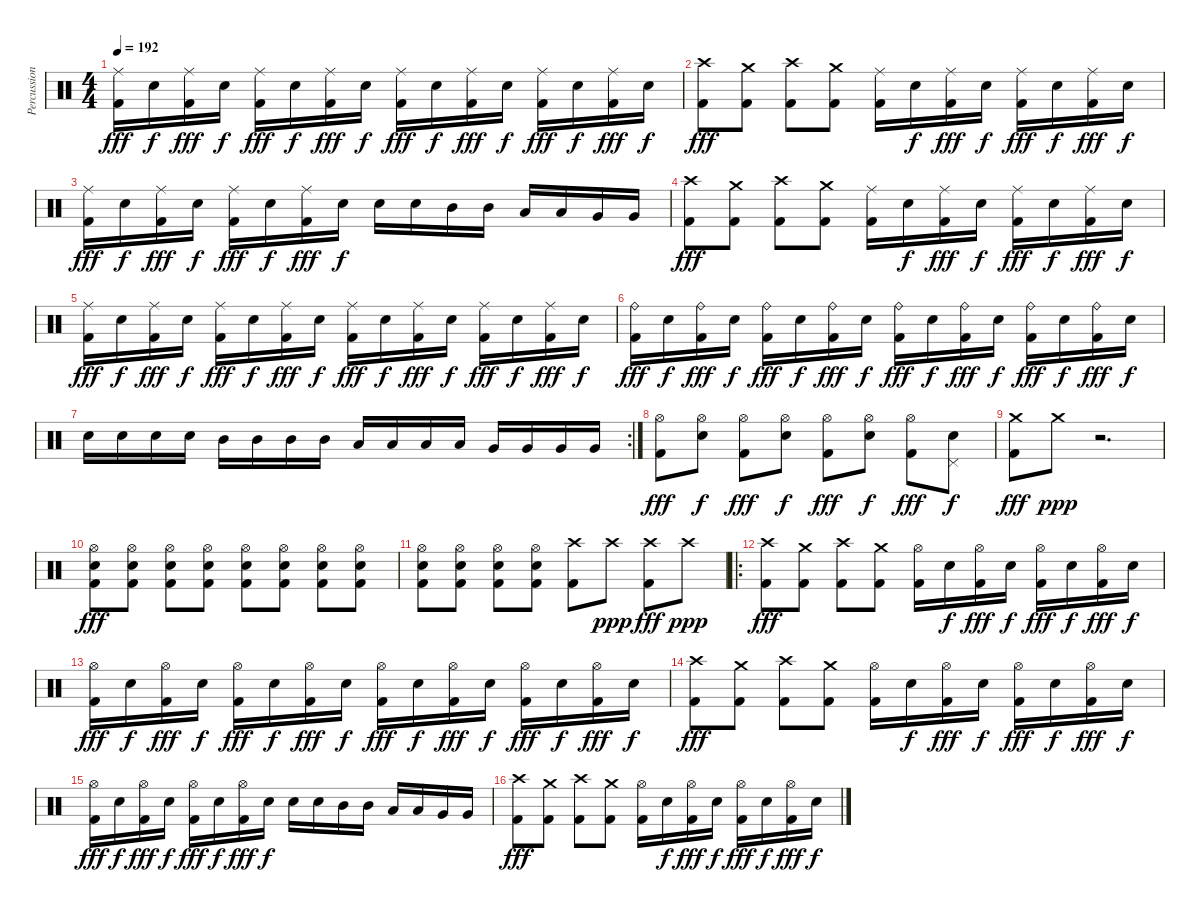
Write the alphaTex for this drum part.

\track ("Percussion" "Percussion") {instrument percussion}
\staff {score}
\articulation defaults
\ts (4 4)
\tempo 192
\clef neutral
\ks c
("Ride (middle)" "Kick (hit) 2").16{dy fff} "Electric Snare (hit)".16{dy f} ("Ride (middle)" "Kick (hit) 2").16{dy fff} "Electric Snare (hit)".16{dy f} ("Ride (middle)" "Kick (hit) 2").16{dy fff} "Electric Snare (hit)".16{dy f} ("Ride (middle)" "Kick (hit) 2").16{dy fff} "Electric Snare (hit)".16{dy f} ("Ride (middle)" "Kick (hit) 2").16{dy fff} "Electric Snare (hit)".16{dy f} ("Ride (middle)" "Kick (hit) 2").16{dy fff} "Electric Snare (hit)".16{dy f} ("Ride (middle)" "Kick (hit) 2").16{dy fff} "Electric Snare (hit)".16{dy f} ("Ride (middle)" "Kick (hit) 2").16{dy fff} "Electric Snare (hit)".16{dy f} |
("Crash high (hit)" "Kick (hit) 2").8{dy fff} ("Crash medium (hit)" "Kick (hit) 2").8 ("Crash high (hit)" "Kick (hit) 2").8 ("Crash medium (hit)" "Kick (hit) 2").8 ("Ride (middle)" "Kick (hit) 2").16 "Electric Snare (hit)".16{dy f} ("Ride (middle)" "Kick (hit) 2").16{dy fff} "Electric Snare (hit)".16{dy f} ("Ride (middle)" "Kick (hit) 2").16{dy fff} "Electric Snare (hit)".16{dy f} ("Ride (middle)" "Kick (hit) 2").16{dy fff} "Electric Snare (hit)".16{dy f} |
("Ride (middle)" "Kick (hit) 2").16{dy fff} "Electric Snare (hit)".16{dy f} ("Ride (middle)" "Kick (hit) 2").16{dy fff} "Electric Snare (hit)".16{dy f} ("Ride (middle)" "Kick (hit) 2").16{dy fff} "Electric Snare (hit)".16{dy f} ("Ride (middle)" "Kick (hit) 2").16{dy fff} "Electric Snare (hit)".16{dy f} "Electric Snare (hit)".16 "Electric Snare (hit)".16 "Mid Tom (hit)".16 "Mid Tom (hit)".16 "Low Tom (hit)".16 "Low Tom (hit)".16 "Very Low Tom (hit)".16 "Very Low Tom (hit)".16 |
("Crash high (hit)" "Kick (hit) 2").8{dy fff} ("Crash medium (hit)" "Kick (hit) 2").8 ("Crash high (hit)" "Kick (hit) 2").8 ("Crash medium (hit)" "Kick (hit) 2").8 ("Ride (middle)" "Kick (hit) 2").16 "Electric Snare (hit)".16{dy f} ("Ride (middle)" "Kick (hit) 2").16{dy fff} "Electric Snare (hit)".16{dy f} ("Ride (middle)" "Kick (hit) 2").16{dy fff} "Electric Snare (hit)".16{dy f} ("Ride (middle)" "Kick (hit) 2").16{dy fff} "Electric Snare (hit)".16{dy f} |
("Ride (middle)" "Kick (hit) 2").16{dy fff} "Electric Snare (hit)".16{dy f} ("Ride (middle)" "Kick (hit) 2").16{dy fff} "Electric Snare (hit)".16{dy f} ("Ride (middle)" "Kick (hit) 2").16{dy fff} "Electric Snare (hit)".16{dy f} ("Ride (middle)" "Kick (hit) 2").16{dy fff} "Electric Snare (hit)".16{dy f} ("Ride (middle)" "Kick (hit) 2").16{dy fff} "Electric Snare (hit)".16{dy f} ("Ride (middle)" "Kick (hit) 2").16{dy fff} "Electric Snare (hit)".16{dy f} ("Ride (middle)" "Kick (hit) 2").16{dy fff} "Electric Snare (hit)".16{dy f} ("Ride (middle)" "Kick (hit) 2").16{dy fff} "Electric Snare (hit)".16{dy f} |
("Ride (bell)" "Kick (hit) 2").16{dy fff} "Electric Snare (hit)".16{dy f} ("Ride (bell)" "Kick (hit) 2").16{dy fff} "Electric Snare (hit)".16{dy f} ("Ride (bell)" "Kick (hit) 2").16{dy fff} "Electric Snare (hit)".16{dy f} ("Ride (bell)" "Kick (hit) 2").16{dy fff} "Electric Snare (hit)".16{dy f} ("Ride (bell)" "Kick (hit) 2").16{dy fff} "Electric Snare (hit)".16{dy f} ("Ride (bell)" "Kick (hit) 2").16{dy fff} "Electric Snare (hit)".16{dy f} ("Ride (bell)" "Kick (hit) 2").16{dy fff} "Electric Snare (hit)".16{dy f} ("Ride (bell)" "Kick (hit) 2").16{dy fff} "Electric Snare (hit)".16{dy f} |
\rc 2 "Electric Snare (hit)".16 "Electric Snare (hit)".16 "Electric Snare (hit)".16 "Electric Snare (hit)".16 "Mid Tom (hit)".16 "Mid Tom (hit)".16 "Mid Tom (hit)".16 "Mid Tom (hit)".16 "Low Tom (hit)".16 "Low Tom (hit)".16 "Low Tom (hit)".16 "Low Tom (hit)".16 "Very Low Tom (hit)".16 "Very Low Tom (hit)".16 "Very Low Tom (hit)".16 "Very Low Tom (hit)".16
|
("Hi-Hat (open)" "Kick (hit) 2").8{dy fff} ("Hi-Hat (open)" "Electric Snare (hit)").8{dy f} ("Hi-Hat (open)" "Kick (hit) 2").8{dy fff} ("Hi-Hat (open)" "Electric Snare (hit)").8{dy f} ("Hi-Hat (open)" "Kick (hit) 2").8{dy fff} ("Hi-Hat (open)" "Electric Snare (hit)").8{dy f} ("Hi-Hat (open)" "Kick (hit) 2").8{dy fff} ("Pedal Hi-Hat (hit)" "Electric Snare (hit)").8{dy f} |
("Crash medium (hit)" "Kick (hit) 2").8{dy fff} "Crash medium (hit)".8{dy ppp} r.2{d} |
("Hi-Hat (open)" "Electric Snare (hit)" "Kick (hit) 2").8{dy fff} ("Hi-Hat (open)" "Electric Snare (hit)" "Kick (hit) 2").8 ("Hi-Hat (open)" "Electric Snare (hit)" "Kick (hit) 2").8 ("Hi-Hat (open)" "Electric Snare (hit)" "Kick (hit) 2").8 ("Hi-Hat (open)" "Electric Snare (hit)" "Kick (hit) 2").8 ("Hi-Hat (open)" "Electric Snare (hit)" "Kick (hit) 2").8 ("Hi-Hat (open)" "Electric Snare (hit)" "Kick (hit) 2").8 ("Hi-Hat (open)" "Electric Snare (hit)" "Kick (hit) 2").8 |
("Hi-Hat (open)" "Electric Snare (hit)" "Kick (hit) 2").8 ("Hi-Hat (open)" "Electric Snare (hit)" "Kick (hit) 2").8 ("Hi-Hat (open)" "Electric Snare (hit)" "Kick (hit) 2").8 ("Hi-Hat (open)" "Electric Snare (hit)" "Kick (hit) 2").8 ("Crash high (hit)" "Kick (hit) 2").8 "Crash high (hit)".8{dy ppp} ("Crash high (hit)" "Kick (hit) 2").8{dy fff} "Crash high (hit)".8{dy ppp} |
\ro
("Crash high (hit)" "Kick (hit) 2").8{dy fff} ("Crash medium (hit)" "Kick (hit) 2").8 ("Crash high (hit)" "Kick (hit) 2").8 ("Crash medium (hit)" "Kick (hit) 2").8 ("Hi-Hat (open)" "Kick (hit) 2").16 "Electric Snare (hit)".16{dy f} ("Hi-Hat (open)" "Kick (hit) 2").16{dy fff} "Electric Snare (hit)".16{dy f} ("Hi-Hat (open)" "Kick (hit) 2").16{dy fff} "Electric Snare (hit)".16{dy f} ("Hi-Hat (open)" "Kick (hit) 2").16{dy fff} "Electric Snare (hit)".16{dy f} |
("Hi-Hat (open)" "Kick (hit) 2").16{dy fff} "Electric Snare (hit)".16{dy f} ("Hi-Hat (open)" "Kick (hit) 2").16{dy fff} "Electric Snare (hit)".16{dy f} ("Hi-Hat (open)" "Kick (hit) 2").16{dy fff} "Electric Snare (hit)".16{dy f} ("Hi-Hat (open)" "Kick (hit) 2").16{dy fff} "Electric Snare (hit)".16{dy f} ("Hi-Hat (open)" "Kick (hit) 2").16{dy fff} "Electric Snare (hit)".16{dy f} ("Hi-Hat (open)" "Kick (hit) 2").16{dy fff} "Electric Snare (hit)".16{dy f} ("Hi-Hat (open)" "Kick (hit) 2").16{dy fff} "Electric Snare (hit)".16{dy f} ("Hi-Hat (open)" "Kick (hit) 2").16{dy fff} "Electric Snare (hit)".16{dy f} |
("Crash high (hit)" "Kick (hit) 2").8{dy fff} ("Crash medium (hit)" "Kick (hit) 2").8 ("Crash high (hit)" "Kick (hit) 2").8 ("Crash medium (hit)" "Kick (hit) 2").8 ("Hi-Hat (open)" "Kick (hit) 2").16 "Electric Snare (hit)".16{dy f} ("Hi-Hat (open)" "Kick (hit) 2").16{dy fff} "Electric Snare (hit)".16{dy f} ("Hi-Hat (open)" "Kick (hit) 2").16{dy fff} "Electric Snare (hit)".16{dy f} ("Hi-Hat (open)" "Kick (hit) 2").16{dy fff} "Electric Snare (hit)".16{dy f} |
("Hi-Hat (open)" "Kick (hit) 2").16{dy fff} "Electric Snare (hit)".16{dy f} ("Hi-Hat (open)" "Kick (hit) 2").16{dy fff} "Electric Snare (hit)".16{dy f} ("Hi-Hat (open)" "Kick (hit) 2").16{dy fff} "Electric Snare (hit)".16{dy f} ("Hi-Hat (open)" "Kick (hit) 2").16{dy fff} "Electric Snare (hit)".16{dy f} "Electric Snare (hit)".16 "Electric Snare (hit)".16 "Mid Tom (hit)".16 "Mid Tom (hit)".16 "Low Tom (hit)".16 "Low Tom (hit)".16 "Very Low Tom (hit)".16 "Very Low Tom (hit)".16 |
("Crash high (hit)" "Kick (hit) 2").8{dy fff} ("Crash medium (hit)" "Kick (hit) 2").8 ("Crash high (hit)" "Kick (hit) 2").8 ("Crash medium (hit)" "Kick (hit) 2").8 ("Hi-Hat (open)" "Kick (hit) 2").16 "Electric Snare (hit)".16{dy f} ("Hi-Hat (open)" "Kick (hit) 2").16{dy fff} "Electric Snare (hit)".16{dy f} ("Hi-Hat (open)" "Kick (hit) 2").16{dy fff} "Electric Snare (hit)".16{dy f} ("Hi-Hat (open)" "Kick (hit) 2").16{dy fff} "Electric Snare (hit)".16{dy f}
